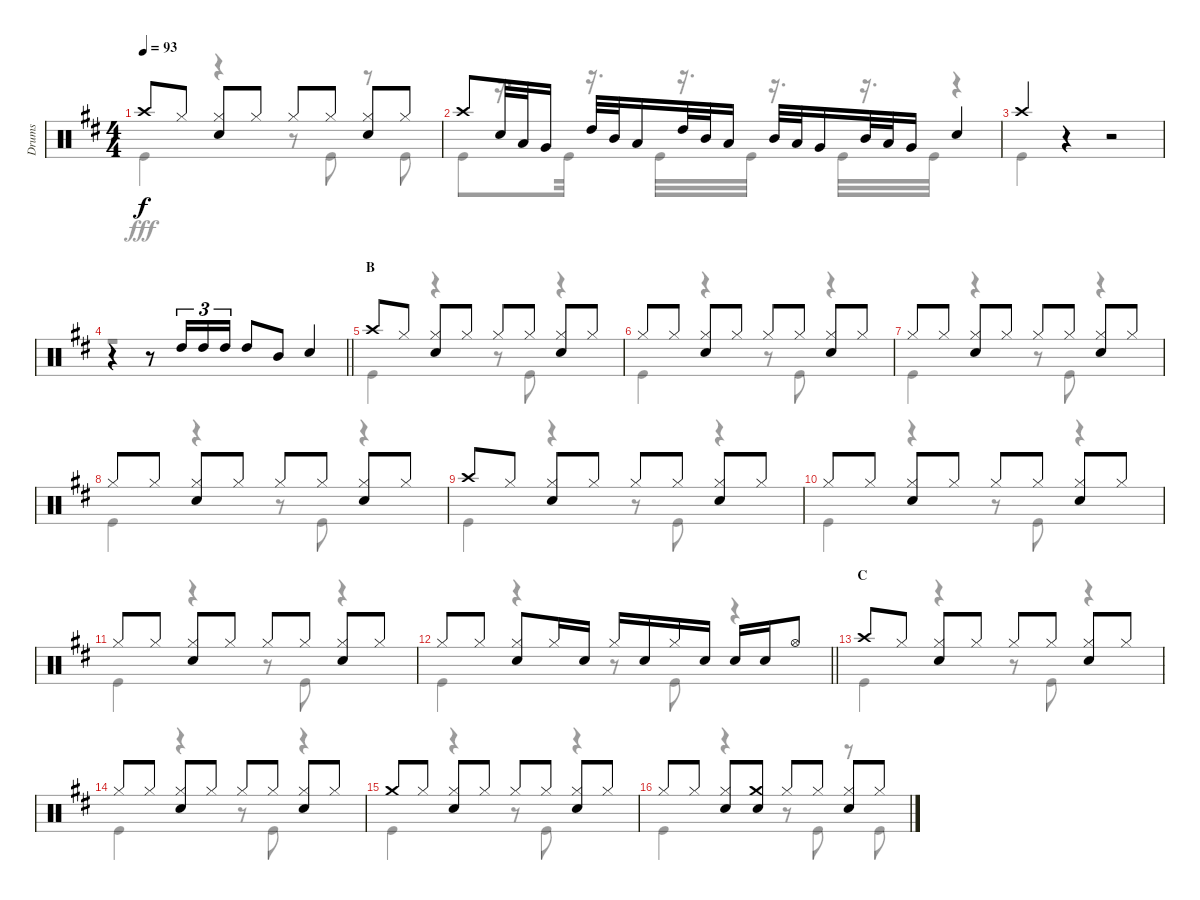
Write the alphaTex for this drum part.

\track ("Drums" "Drums") {instrument percussion}
\staff {score}
\articulation defaults
\voice
\ts (4 4)
\tempo 93
\clef neutral
\ks d "Crash high (hit)".8{dy f} "Hi-Hat (closed)".8
("Hi-Hat (closed)" "Snare (hit) 2").8 "Hi-Hat (closed)".8 "Hi-Hat (closed)".8 "Hi-Hat (closed)".8 ("Hi-Hat (closed)" "Snare (hit) 2").8 "Hi-Hat (closed)".8 |
"Crash high (hit)".8 "Snare (hit) 2".32 "Low Tom (hit)".32 "Very Low Tom (hit)".16 "High Tom (hit)".32 "Mid Tom (hit)".32 "Low Tom (hit)".16 "High Tom (hit)".32 "Mid Tom (hit)".32 "Low Tom (hit)".16 "Mid Tom (hit)".32 "Low Tom (hit)".32 "Very Low Tom (hit)".16 "Mid Tom (hit)".32 "Low Tom (hit)".32 "Very Low Tom (hit)".16 "Snare (hit) 2".4 |
"Crash high (hit)".4 r.4 r.2 |
\barLineRight lightlight
r.4 r.8 "High Tom (hit)".16{tu (3 2)} "High Tom (hit)".16{tu (3 2)} "High Tom (hit)".16{tu (3 2)} "High Tom (hit)".8 "Mid Tom (hit)".8 "Snare (hit) 2".4 |
\section ("" "B")
"Crash high (hit)".8 "Hi-Hat (closed)".8 ("Hi-Hat (closed)" "Snare (hit) 2").8 "Hi-Hat (closed)".8 "Hi-Hat (closed)".8 "Hi-Hat (closed)".8 ("Hi-Hat (closed)" "Snare (hit) 2").8 "Hi-Hat (closed)".8 |
"Hi-Hat (closed)".8 "Hi-Hat (closed)".8 ("Hi-Hat (closed)" "Snare (hit) 2").8 "Hi-Hat (closed)".8 "Hi-Hat (closed)".8 "Hi-Hat (closed)".8 ("Hi-Hat (closed)" "Snare (hit) 2").8 "Hi-Hat (closed)".8 |
"Hi-Hat (closed)".8 "Hi-Hat (closed)".8 ("Hi-Hat (closed)" "Snare (hit) 2").8 "Hi-Hat (closed)".8 "Hi-Hat (closed)".8 "Hi-Hat (closed)".8 ("Hi-Hat (closed)" "Snare (hit) 2").8 "Hi-Hat (closed)".8 |
"Hi-Hat (closed)".8 "Hi-Hat (closed)".8 ("Hi-Hat (closed)" "Snare (hit) 2").8 "Hi-Hat (closed)".8 "Hi-Hat (closed)".8 "Hi-Hat (closed)".8 ("Hi-Hat (closed)" "Snare (hit) 2").8 "Hi-Hat (closed)".8 |
"Crash high (hit)".8 "Hi-Hat (closed)".8 ("Hi-Hat (closed)" "Snare (hit) 2").8 "Hi-Hat (closed)".8 "Hi-Hat (closed)".8 "Hi-Hat (closed)".8 ("Hi-Hat (closed)" "Snare (hit) 2").8 "Hi-Hat (closed)".8 |
"Hi-Hat (closed)".8 "Hi-Hat (closed)".8 ("Hi-Hat (closed)" "Snare (hit) 2").8 "Hi-Hat (closed)".8 "Hi-Hat (closed)".8 "Hi-Hat (closed)".8 ("Hi-Hat (closed)" "Snare (hit) 2").8 "Hi-Hat (closed)".8 |
"Hi-Hat (closed)".8 "Hi-Hat (closed)".8 ("Hi-Hat (closed)" "Snare (hit) 2").8 "Hi-Hat (closed)".8 "Hi-Hat (closed)".8 "Hi-Hat (closed)".8 ("Hi-Hat (closed)" "Snare (hit) 2").8 "Hi-Hat (closed)".8 |
\barLineRight lightlight "Hi-Hat (closed)".8 "Hi-Hat (closed)".8
("Hi-Hat (closed)" "Snare (hit) 2").8 "Hi-Hat (closed)".16 "Snare (hit) 2".16 "Hi-Hat (closed)".16 "Snare (hit) 2".16 "Hi-Hat (closed)".16 "Snare (hit) 2".16 "Snare (hit) 2".16 "Snare (hit) 2".16 "Hi-Hat (open)".8 |
\section ("" "C")
"Crash high (hit)".8 "Hi-Hat (closed)".8 ("Hi-Hat (closed)" "Snare (hit) 2").8 "Hi-Hat (closed)".8 "Hi-Hat (closed)".8 "Hi-Hat (closed)".8 ("Hi-Hat (closed)" "Snare (hit) 2").8 "Hi-Hat (closed)".8 |
"Hi-Hat (closed)".8 "Hi-Hat (closed)".8 ("Hi-Hat (closed)" "Snare (hit) 2").8 "Hi-Hat (closed)".8 "Hi-Hat (closed)".8 "Hi-Hat (closed)".8 ("Hi-Hat (closed)" "Snare (hit) 2").8 "Hi-Hat (closed)".8 |
"Crash medium (hit)".8 "Hi-Hat (closed)".8 ("Hi-Hat (closed)" "Snare (hit) 2").8 "Hi-Hat (closed)".8 "Hi-Hat (closed)".8 "Hi-Hat (closed)".8 ("Hi-Hat (closed)" "Snare (hit) 2").8 "Hi-Hat (closed)".8 |
"Hi-Hat (closed)".8 "Hi-Hat (closed)".8 ("Hi-Hat (closed)" "Snare (hit) 2").8 ("Crash medium (hit)" "Snare (hit) 2").8 "Hi-Hat (closed)".8 "Hi-Hat (closed)".8 ("Hi-Hat (closed)" "Snare (hit) 2").8 "Hi-Hat (closed)".8
\voice
\clef neutral
\ottava regular
\simile none
\ks d "Kick (hit)".4{dy fff}
r.4 r.8 "Kick (hit)".8 r.8 "Kick (hit)".8 |
"Kick (hit)".8 r.16{d} "Kick (hit)".32 r.16{d} "Kick (hit)".32 r.16{d} "Kick (hit)".32 r.16{d} "Kick (hit)".32 r.16{d} "Kick (hit)".32 r.4 |
"Kick (hit)".4 r.4 r.2 |
\barLineRight lightlight
r.1 |
"Kick (hit)".4 r.4 r.8 "Kick (hit)".8 r.4 |
"Kick (hit)".4 r.4 r.8 "Kick (hit)".8 r.4 |
"Kick (hit)".4 r.4 r.8 "Kick (hit)".8 r.4 |
"Kick (hit)".4 r.4 r.8 "Kick (hit)".8 r.4 |
"Kick (hit)".4 r.4 r.8 "Kick (hit)".8 r.4 |
"Kick (hit)".4 r.4 r.8 "Kick (hit)".8 r.4 |
"Kick (hit)".4 r.4 r.8 "Kick (hit)".8 r.4 |
\barLineRight lightlight "Kick (hit)".4
r.4 r.8 "Kick (hit)".8 r.4 |
"Kick (hit)".4 r.4 r.8 "Kick (hit)".8 r.4 |
"Kick (hit)".4 r.4 r.8 "Kick (hit)".8 r.4 |
"Kick (hit)".4 r.4 r.8 "Kick (hit)".8 r.4 |
"Kick (hit)".4 r.4 r.8 "Kick (hit)".8 r.8 "Kick (hit)".8
